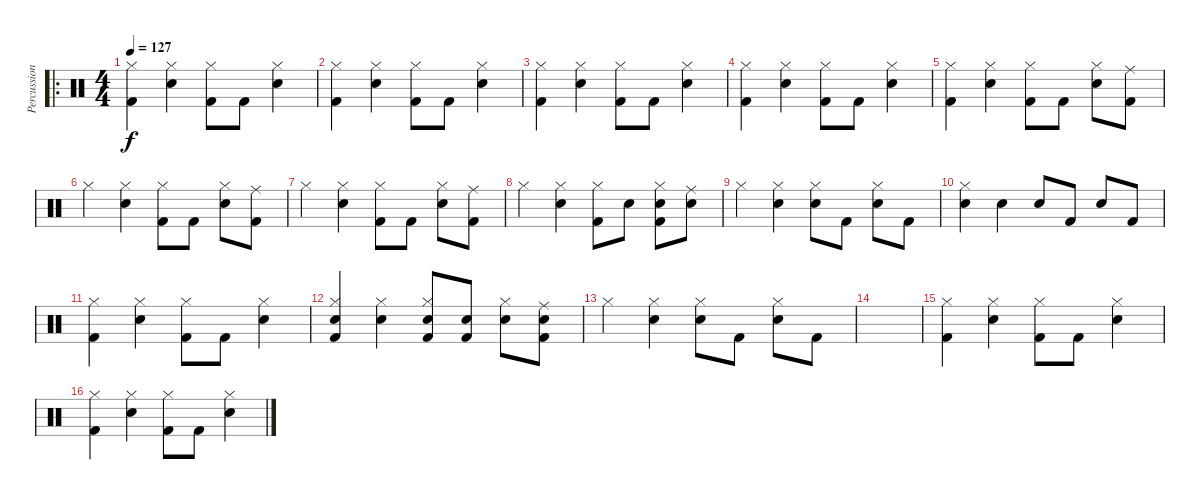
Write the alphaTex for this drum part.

\track ("Percussions" "Percussion") {instrument percussion}
\staff {score}
\articulation defaults
\ro
\ts (4 4)
\tempo 127
\clef neutral
\ks c
("Kick (hit) 2" "Hi-Hat (closed)").4{dy f} ("Snare (hit) 2" "Hi-Hat (closed)").4 ("Kick (hit) 2" "Hi-Hat (closed)").8 "Kick (hit) 2".8 ("Snare (hit) 2" "Hi-Hat (closed)").4 |
("Kick (hit) 2" "Hi-Hat (closed)").4 ("Snare (hit) 2" "Hi-Hat (closed)").4 ("Kick (hit) 2" "Hi-Hat (closed)").8 "Kick (hit) 2".8 ("Snare (hit) 2" "Hi-Hat (closed)").4 |
("Kick (hit) 2" "Hi-Hat (closed)").4 ("Snare (hit) 2" "Hi-Hat (closed)").4 ("Kick (hit) 2" "Hi-Hat (closed)").8 "Kick (hit) 2".8 ("Snare (hit) 2" "Hi-Hat (closed)").4 |
("Kick (hit) 2" "Hi-Hat (closed)").4 ("Snare (hit) 2" "Hi-Hat (closed)").4 ("Kick (hit) 2" "Hi-Hat (closed)").8 "Kick (hit) 2".8 ("Snare (hit) 2" "Hi-Hat (closed)").4 |
("Kick (hit) 2" "Hi-Hat (closed)").4 ("Snare (hit) 2" "Hi-Hat (closed)").4 ("Kick (hit) 2" "Hi-Hat (closed)").8 "Kick (hit) 2".8 ("Snare (hit) 2" "Hi-Hat (closed)").8 ("Kick (hit) 2" "Ride (middle)").8 |
"Hi-Hat (closed)".4 ("Snare (hit) 2" "Hi-Hat (closed)").4 ("Kick (hit) 2" "Hi-Hat (closed)").8 "Kick (hit) 2".8 ("Snare (hit) 2" "Hi-Hat (closed)").8 ("Kick (hit) 2" "Ride (middle)").8 |
"Hi-Hat (closed)".4 ("Snare (hit) 2" "Hi-Hat (closed)").4 ("Kick (hit) 2" "Hi-Hat (closed)").8 "Kick (hit) 2".8 ("Snare (hit) 2" "Hi-Hat (closed)").8 ("Kick (hit) 2" "Ride (middle)").8 |
"Hi-Hat (closed)".4 ("Snare (hit) 2" "Hi-Hat (closed)").4 ("Kick (hit) 2" "Hi-Hat (closed)").8 "Snare (hit) 2".8 ("Kick (hit) 2" "Snare (hit) 2" "Hi-Hat (closed)").8 ("Snare (hit) 2" "Ride (middle)").8 |
"Hi-Hat (closed)".4 ("Snare (hit) 2" "Hi-Hat (closed)").4 ("Snare (hit) 2" "Hi-Hat (closed)").8 "Kick (hit) 2".8 ("Snare (hit) 2" "Hi-Hat (closed)").8 "Kick (hit) 2".8 |
("Snare (hit) 2" "Hi-Hat (closed)").4 "Snare (hit) 2".4 "Snare (hit) 2".8 "Kick (hit) 2".8 "Snare (hit) 2".8 "Kick (hit) 2".8 |
("Kick (hit) 2" "Hi-Hat (closed)").4 ("Snare (hit) 2" "Hi-Hat (closed)").4 ("Kick (hit) 2" "Hi-Hat (closed)").8 "Kick (hit) 2".8 ("Snare (hit) 2" "Hi-Hat (closed)").4 |
("Kick (hit) 2" "Snare (hit) 2" "Hi-Hat (closed)").4 ("Snare (hit) 2" "Hi-Hat (closed)").4 ("Kick (hit) 2" "Snare (hit) 2" "Hi-Hat (closed)").8 ("Kick (hit) 2" "Snare (hit) 2").8 ("Snare (hit) 2" "Hi-Hat (closed)").8 ("Kick (hit) 2" "Snare (hit) 2" "Ride (middle)").8 |
"Hi-Hat (closed)".4 ("Snare (hit) 2" "Hi-Hat (closed)").4 ("Snare (hit) 2" "Hi-Hat (closed)").8 "Kick (hit) 2".8 ("Snare (hit) 2" "Hi-Hat (closed)").8 "Kick (hit) 2".8 |
|
("Kick (hit) 2" "Hi-Hat (closed)").4 ("Snare (hit) 2" "Hi-Hat (closed)").4 ("Kick (hit) 2" "Hi-Hat (closed)").8 "Kick (hit) 2".8 ("Snare (hit) 2" "Hi-Hat (closed)").4 |
("Kick (hit) 2" "Hi-Hat (closed)").4 ("Snare (hit) 2" "Hi-Hat (closed)").4 ("Kick (hit) 2" "Hi-Hat (closed)").8 "Kick (hit) 2".8 ("Snare (hit) 2" "Hi-Hat (closed)").4
